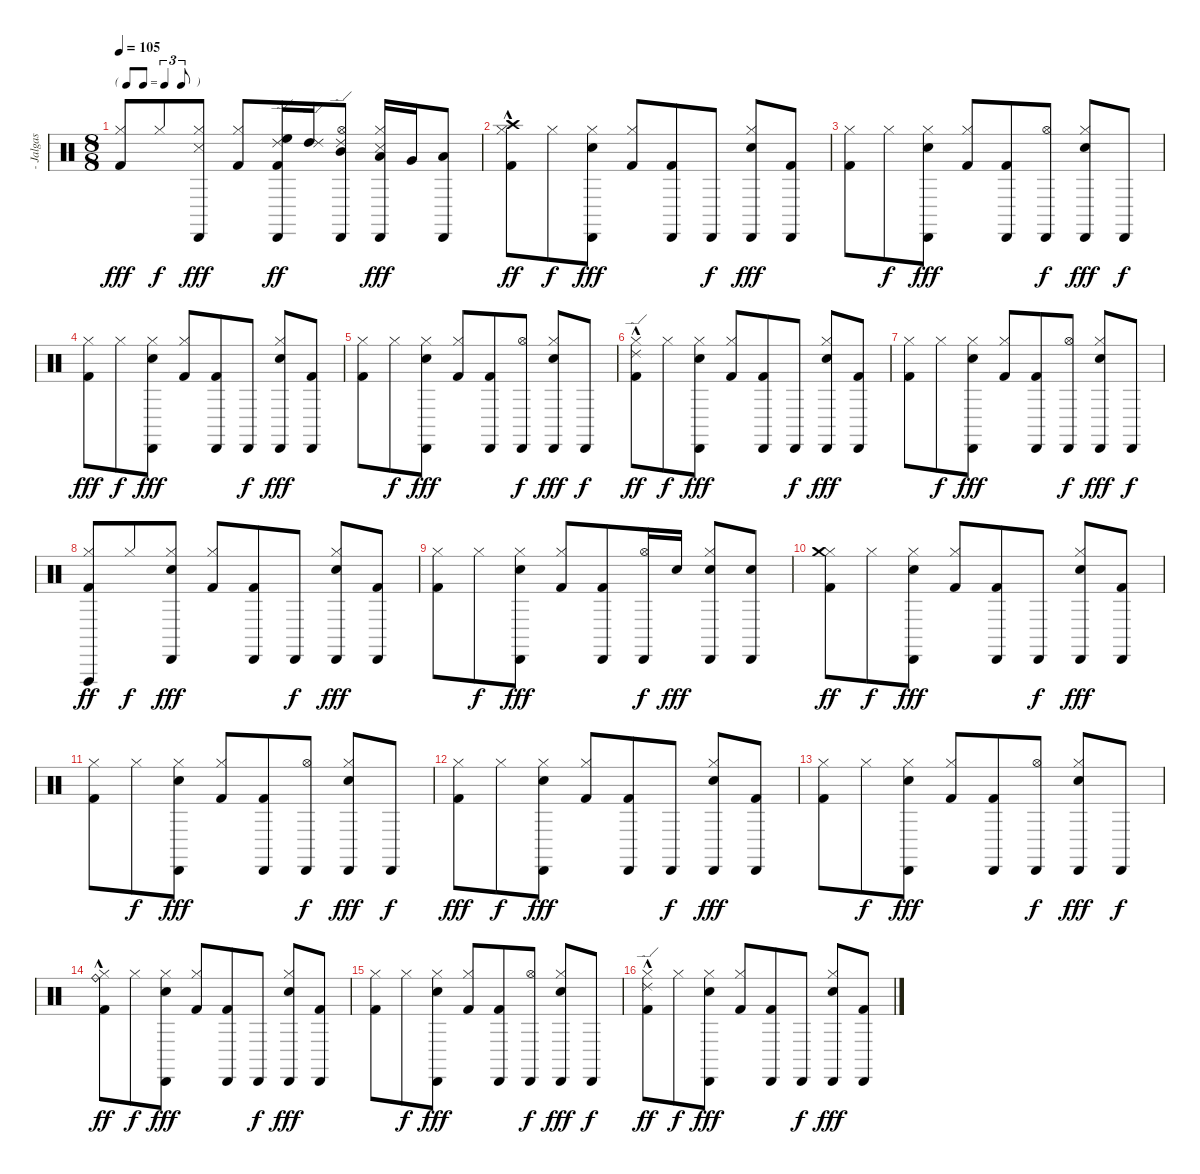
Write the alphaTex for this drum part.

\track (" - Jalgas -" " - Jalgas ") {instrument percussion}
\staff {score}
\articulation defaults
\ts (8 8)
\tf triplet8th
\tempo 105
\clef neutral
\ks c
("Kick (hit) 2" "Hi-Hat (closed)").8{dy fff} "Hi-Hat (closed)".8{dy f} ("Snare (side stick) 3" "Hi-Hat (closed)" "Cabasa (hit)").8{dy fff} ("Kick (hit) 2" "Hi-Hat (closed)").8 ("Kick (hit) 2" "Cabasa (hit)" "High Floor Tom (hit)" "Ride (edge) 2").16{dy ff} ("High Tom (hit)" "Ride (edge) 2").16 ("Hi-Hat (open)" "Cabasa (hit)" "Mid Tom (hit)" "Ride (edge) 2").8 ("Snare (side stick) 3" "Hi-Hat (closed)" "Cabasa (hit)" "Low Tom (hit)").16{dy fff} "Very Low Tom (hit)".16 ("Cabasa (hit)" "Low Floor Tom (hit)").8 |
("Kick (hit) 2" "Hi-Hat (closed)" "Crash high (hit)"{hac}).8{dy ff} "Hi-Hat (closed)".8{dy f} ("Electric Snare (hit)" "Hi-Hat (closed)" "Cabasa (hit)").8{dy fff} ("Kick (hit) 2" "Hi-Hat (closed)").8 ("Kick (hit) 2" "Cabasa (hit)").8 "Cabasa (hit)".8{dy f} ("Electric Snare (hit)" "Hi-Hat (closed)" "Cabasa (hit)").8{dy fff} ("Kick (hit) 2" "Cabasa (hit)").8 |
("Kick (hit) 2" "Hi-Hat (closed)").8 "Hi-Hat (closed)".8{dy f} ("Electric Snare (hit)" "Hi-Hat (closed)" "Cabasa (hit)").8{dy fff} ("Kick (hit) 2" "Hi-Hat (closed)").8 ("Kick (hit) 2" "Cabasa (hit)").8 ("Hi-Hat (open)" "Cabasa (hit)").8{dy f} ("Electric Snare (hit)" "Hi-Hat (closed)" "Cabasa (hit)").8{dy fff} "Cabasa (hit)".8{dy f} |
("Kick (hit) 2" "Hi-Hat (closed)").8{dy fff} "Hi-Hat (closed)".8{dy f} ("Electric Snare (hit)" "Hi-Hat (closed)" "Cabasa (hit)").8{dy fff} ("Kick (hit) 2" "Hi-Hat (closed)").8 ("Kick (hit) 2" "Cabasa (hit)").8 "Cabasa (hit)".8{dy f} ("Electric Snare (hit)" "Hi-Hat (closed)" "Cabasa (hit)").8{dy fff} ("Kick (hit) 2" "Cabasa (hit)").8 |
("Kick (hit) 2" "Hi-Hat (closed)").8 "Hi-Hat (closed)".8{dy f} ("Electric Snare (hit)" "Hi-Hat (closed)" "Cabasa (hit)").8{dy fff} ("Kick (hit) 2" "Hi-Hat (closed)").8 ("Kick (hit) 2" "Cabasa (hit)").8 ("Hi-Hat (open)" "Cabasa (hit)").8{dy f} ("Electric Snare (hit)" "Hi-Hat (closed)" "Cabasa (hit)").8{dy fff} "Cabasa (hit)".8{dy f} |
("Kick (hit) 2" "Hi-Hat (closed)" "Ride (edge) 2"{hac}).8{dy ff} "Hi-Hat (closed)".8{dy f} ("Electric Snare (hit)" "Hi-Hat (closed)" "Cabasa (hit)").8{dy fff} ("Kick (hit) 2" "Hi-Hat (closed)").8 ("Kick (hit) 2" "Cabasa (hit)").8 "Cabasa (hit)".8{dy f} ("Electric Snare (hit)" "Hi-Hat (closed)" "Cabasa (hit)").8{dy fff} ("Kick (hit) 2" "Cabasa (hit)").8 |
("Kick (hit) 2" "Hi-Hat (closed)").8 "Hi-Hat (closed)".8{dy f} ("Electric Snare (hit)" "Hi-Hat (closed)" "Cabasa (hit)").8{dy fff} ("Kick (hit) 2" "Hi-Hat (closed)").8 ("Kick (hit) 2" "Cabasa (hit)").8 ("Hi-Hat (open)" "Cabasa (hit)").8{dy f} ("Electric Snare (hit)" "Hi-Hat (closed)" "Cabasa (hit)").8{dy fff} "Cabasa (hit)".8{dy f} |
("Kick (hit) 2" "Hi-Hat (closed)" "Vibraslap (hit)").8{dy ff} "Hi-Hat (closed)".8{dy f} ("Electric Snare (hit)" "Hi-Hat (closed)" "Cabasa (hit)").8{dy fff} ("Kick (hit) 2" "Hi-Hat (closed)").8 ("Kick (hit) 2" "Cabasa (hit)").8 "Cabasa (hit)".8{dy f} ("Electric Snare (hit)" "Hi-Hat (closed)" "Cabasa (hit)").8{dy fff} ("Kick (hit) 2" "Cabasa (hit)").8 |
("Kick (hit) 2" "Hi-Hat (closed)").8 "Hi-Hat (closed)".8{dy f} ("Electric Snare (hit)" "Hi-Hat (closed)" "Cabasa (hit)").8{dy fff} ("Kick (hit) 2" "Hi-Hat (closed)").8 ("Kick (hit) 2" "Cabasa (hit)").8 ("Hi-Hat (open)" "Cabasa (hit)").16{dy f} "Electric Snare (hit)".16{dy fff} ("Electric Snare (hit)" "Hi-Hat (closed)" "Cabasa (hit)").8 ("Electric Snare (hit)" "Cabasa (hit)").8 |
("Kick (hit) 2" "Hi-Hat (closed)" "Crash medium (hit)").8{dy ff} "Hi-Hat (closed)".8{dy f} ("Electric Snare (hit)" "Hi-Hat (closed)" "Cabasa (hit)").8{dy fff} ("Kick (hit) 2" "Hi-Hat (closed)").8 ("Kick (hit) 2" "Cabasa (hit)").8 "Cabasa (hit)".8{dy f} ("Electric Snare (hit)" "Hi-Hat (closed)" "Cabasa (hit)").8{dy fff} ("Kick (hit) 2" "Cabasa (hit)").8 |
("Kick (hit) 2" "Hi-Hat (closed)").8 "Hi-Hat (closed)".8{dy f} ("Electric Snare (hit)" "Hi-Hat (closed)" "Cabasa (hit)").8{dy fff} ("Kick (hit) 2" "Hi-Hat (closed)").8 ("Kick (hit) 2" "Cabasa (hit)").8 ("Hi-Hat (open)" "Cabasa (hit)").8{dy f} ("Electric Snare (hit)" "Hi-Hat (closed)" "Cabasa (hit)").8{dy fff} "Cabasa (hit)".8{dy f} |
("Kick (hit) 2" "Hi-Hat (closed)").8{dy fff} "Hi-Hat (closed)".8{dy f} ("Electric Snare (hit)" "Hi-Hat (closed)" "Cabasa (hit)").8{dy fff} ("Kick (hit) 2" "Hi-Hat (closed)").8 ("Kick (hit) 2" "Cabasa (hit)").8 "Cabasa (hit)".8{dy f} ("Electric Snare (hit)" "Hi-Hat (closed)" "Cabasa (hit)").8{dy fff} ("Kick (hit) 2" "Cabasa (hit)").8 |
("Kick (hit) 2" "Hi-Hat (closed)").8 "Hi-Hat (closed)".8{dy f} ("Electric Snare (hit)" "Hi-Hat (closed)" "Cabasa (hit)").8{dy fff} ("Kick (hit) 2" "Hi-Hat (closed)").8 ("Kick (hit) 2" "Cabasa (hit)").8 ("Hi-Hat (open)" "Cabasa (hit)").8{dy f} ("Electric Snare (hit)" "Hi-Hat (closed)" "Cabasa (hit)").8{dy fff} "Cabasa (hit)".8{dy f} |
("Kick (hit) 2" "Hi-Hat (closed)" "Ride (bell)"{hac}).8{dy ff} "Hi-Hat (closed)".8{dy f} ("Electric Snare (hit)" "Hi-Hat (closed)" "Cabasa (hit)").8{dy fff} ("Kick (hit) 2" "Hi-Hat (closed)").8 ("Kick (hit) 2" "Cabasa (hit)").8 "Cabasa (hit)".8{dy f} ("Electric Snare (hit)" "Hi-Hat (closed)" "Cabasa (hit)").8{dy fff} ("Kick (hit) 2" "Cabasa (hit)").8 |
("Kick (hit) 2" "Hi-Hat (closed)").8 "Hi-Hat (closed)".8{dy f} ("Electric Snare (hit)" "Hi-Hat (closed)" "Cabasa (hit)").8{dy fff} ("Kick (hit) 2" "Hi-Hat (closed)").8 ("Kick (hit) 2" "Cabasa (hit)").8 ("Hi-Hat (open)" "Cabasa (hit)").8{dy f} ("Electric Snare (hit)" "Hi-Hat (closed)" "Cabasa (hit)").8{dy fff} "Cabasa (hit)".8{dy f} |
("Kick (hit) 2" "Hi-Hat (closed)" "Ride (edge) 2"{hac}).8{dy ff} "Hi-Hat (closed)".8{dy f} ("Electric Snare (hit)" "Hi-Hat (closed)" "Cabasa (hit)").8{dy fff} ("Kick (hit) 2" "Hi-Hat (closed)").8 ("Kick (hit) 2" "Cabasa (hit)").8 "Cabasa (hit)".8{dy f} ("Electric Snare (hit)" "Hi-Hat (closed)" "Cabasa (hit)").8{dy fff} ("Kick (hit) 2" "Cabasa (hit)").8
